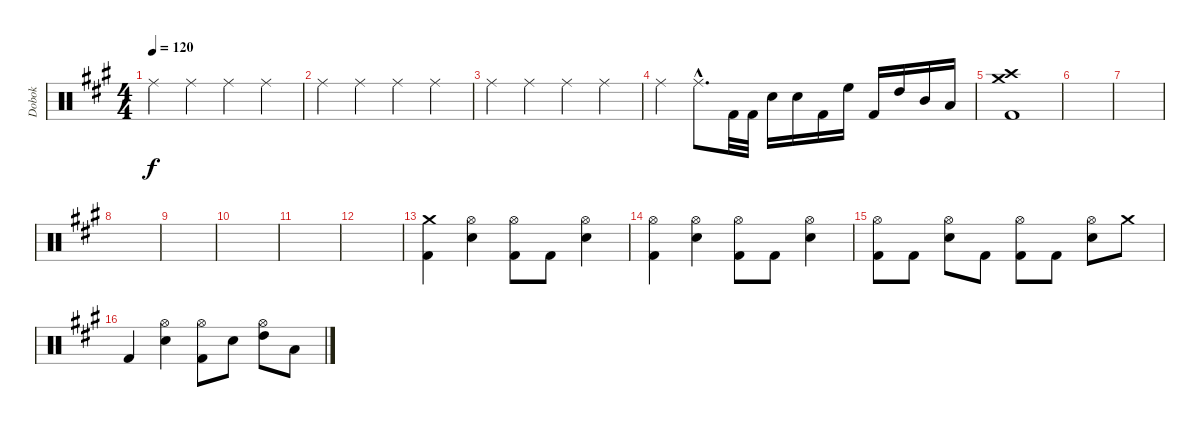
\track ("Dobok" "Dobok") {instrument percussion}
\staff {score}
\articulation defaults
\ts (4 4)
\tempo 120
\clef neutral
\ks a "Ride (middle)".4{dy f volume 15} "Ride (middle)".4 "Ride (middle)".4 "Ride (middle)".4
|
"Ride (middle)".4 "Ride (middle)".4 "Ride (middle)".4 "Ride (middle)".4 |
"Ride (middle)".4 "Ride (middle)".4 "Ride (middle)".4 "Ride (middle)".4 |
"Ride (middle)".4 "Ride (middle)"{hac}.8{d} "Kick (hit) 2".32 "Kick (hit) 2".32 "Snare (hit) 2".16 "Snare (hit) 2".16 "Kick (hit) 2".16 "High Floor Tom (hit)".16 "Kick (hit) 2".16 "High Tom (hit)".16 "Mid Tom (hit)".16 "Low Tom (hit)".16 |
("Crash medium (hit)" "Crash high (hit)" "Kick (hit) 2").1 |
|
|
|
|
|
|
|
("Crash medium (hit)" "Kick (hit) 2").4 ("Hi-Hat (open)" "Snare (hit) 2").4 ("Hi-Hat (open)" "Kick (hit) 2").8 "Kick (hit) 2".8 ("Hi-Hat (open)" "Snare (hit) 2").4 |
("Hi-Hat (open)" "Kick (hit) 2").4 ("Hi-Hat (open)" "Snare (hit) 2").4 ("Hi-Hat (open)" "Kick (hit) 2").8 "Kick (hit) 2".8 ("Hi-Hat (open)" "Snare (hit) 2").4 |
("Hi-Hat (open)" "Kick (hit) 2").8 "Kick (hit) 2".8 ("Hi-Hat (open)" "Snare (hit) 2").8 "Kick (hit) 2".8 ("Hi-Hat (open)" "Kick (hit) 2").8 "Kick (hit) 2".8 ("Hi-Hat (open)" "Snare (hit) 2").8 "Crash medium (hit)".8 |
"Kick (hit) 2".4 ("Hi-Hat (open)" "Snare (hit) 2").4 ("Hi-Hat (open)" "Kick (hit) 2").8 "Snare (hit) 2".8 ("Hi-Hat (open)" "High Tom (hit)").8 "Low Tom (hit)".8
